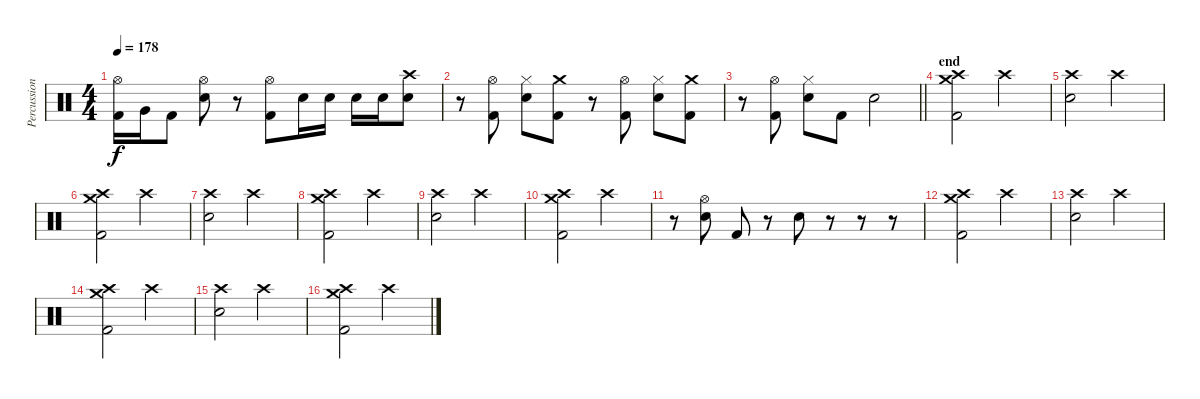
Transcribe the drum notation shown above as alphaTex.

\track ("Percussion" "Percussion") {instrument percussion}
\staff {score}
\articulation defaults
\ts (4 4)
\tempo 178
\clef neutral
\ks c
("Hi-Hat (open)" "Kick (hit) 2").16{dy f} "Very Low Tom (hit)".16 "Kick (hit) 2".8 ("Hi-Hat (open)" "Electric Snare (hit)").8 r.8 ("Hi-Hat (open)" "Kick (hit) 2").8 "Electric Snare (hit)".16 "Electric Snare (hit)".16 "Electric Snare (hit)".16 "Electric Snare (hit)".16 ("Crash high (hit)" "Electric Snare (hit)").8 |
r.8 ("Hi-Hat (open)" "Kick (hit) 2").8 ("Hi-Hat (closed)" "Electric Snare (hit)").8 ("Crash medium (hit)" "Kick (hit) 2").8 r.8 ("Hi-Hat (open)" "Kick (hit) 2").8 ("Hi-Hat (closed)" "Electric Snare (hit)").8 ("Crash medium (hit)" "Kick (hit) 2").8 |
\barLineRight lightlight
r.8 ("Hi-Hat (open)" "Kick (hit) 2").8 ("Hi-Hat (closed)" "Electric Snare (hit)").8 "Kick (hit) 2".8 "Electric Snare (hit)".2 |
\section ("" "end")
("Crash medium (hit)" "Crash high (hit)" "Kick (hit) 2").2 "Crash high (hit)".2 |
("Crash high (hit)" "Electric Snare (hit)").2 "Crash high (hit)".2 |
("Crash medium (hit)" "Crash high (hit)" "Kick (hit) 2").2 "Crash high (hit)".2 |
("Crash high (hit)" "Electric Snare (hit)").2 "Crash high (hit)".2 |
("Crash medium (hit)" "Crash high (hit)" "Kick (hit) 2").2 "Crash high (hit)".2 |
("Crash high (hit)" "Electric Snare (hit)").2 "Crash high (hit)".2 |
("Crash medium (hit)" "Crash high (hit)" "Kick (hit) 2").2 "Crash high (hit)".2 |
r.8 ("Hi-Hat (open)" "Electric Snare (hit)").8 "Kick (hit) 2".8 r.8 "Electric Snare (hit)".8 r.8 r.8 r.8 |
("Crash medium (hit)" "Crash high (hit)" "Kick (hit) 2").2 "Crash high (hit)".2 |
("Crash high (hit)" "Electric Snare (hit)").2 "Crash high (hit)".2 |
("Crash medium (hit)" "Crash high (hit)" "Kick (hit) 2").2 "Crash high (hit)".2 |
("Crash high (hit)" "Electric Snare (hit)").2 "Crash high (hit)".2 |
("Crash medium (hit)" "Crash high (hit)" "Kick (hit) 2").2 "Crash high (hit)".2
